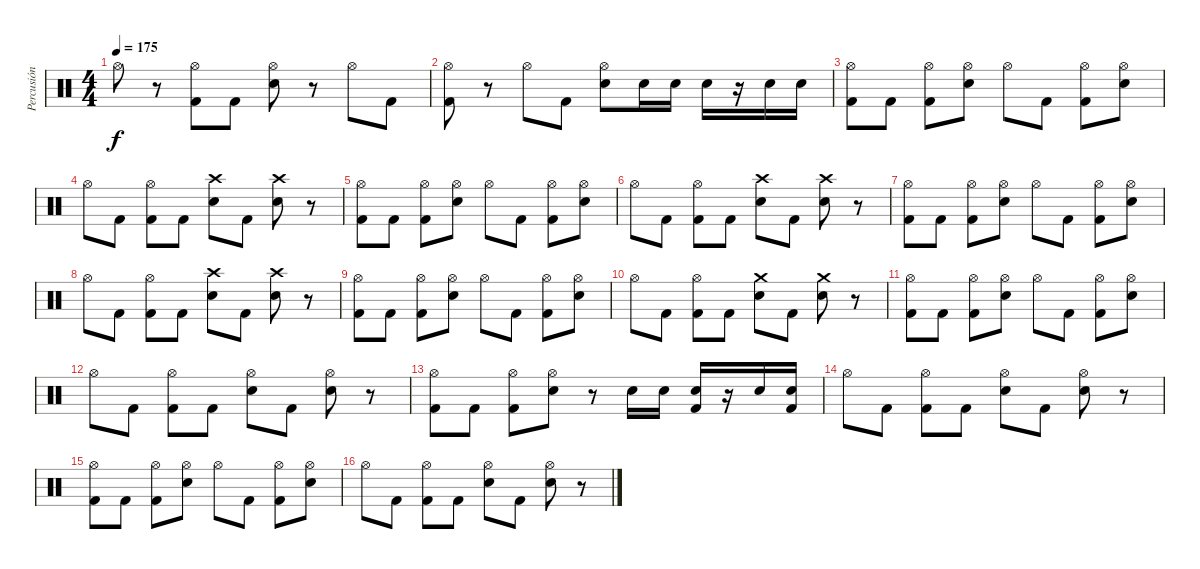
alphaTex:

\track ("Percusión" "Percusión") {instrument percussion}
\staff {score}
\articulation defaults
\ts (4 4)
\tempo 175
\clef neutral
\ks c "Hi-Hat (open)".8{dy f}
r.8 ("Hi-Hat (open)" "Kick (hit) 2").8 "Kick (hit) 2".8 ("Hi-Hat (open)" "Electric Snare (hit)").8 r.8 "Hi-Hat (open)".8 "Kick (hit) 2".8 |
("Hi-Hat (open)" "Kick (hit) 2").8 r.8 "Hi-Hat (open)".8 "Kick (hit) 2".8 ("Hi-Hat (open)" "Electric Snare (hit)").8 "Electric Snare (hit)".16 "Electric Snare (hit)".16 "Electric Snare (hit)".16 r.16 "Electric Snare (hit)".16 "Electric Snare (hit)".16 |
("Hi-Hat (open)" "Kick (hit) 2").8 "Kick (hit) 2".8 ("Hi-Hat (open)" "Kick (hit) 2").8 ("Hi-Hat (open)" "Electric Snare (hit)").8 "Hi-Hat (open)".8 "Kick (hit) 2".8 ("Hi-Hat (open)" "Kick (hit) 2").8 ("Hi-Hat (open)" "Electric Snare (hit)").8 |
"Hi-Hat (open)".8 "Kick (hit) 2".8 ("Hi-Hat (open)" "Kick (hit) 2").8 "Kick (hit) 2".8 ("Crash high (hit)" "Electric Snare (hit)").8 "Kick (hit) 2".8 ("Crash high (hit)" "Electric Snare (hit)").8 r.8 |
("Hi-Hat (open)" "Kick (hit) 2").8 "Kick (hit) 2".8 ("Hi-Hat (open)" "Kick (hit) 2").8 ("Hi-Hat (open)" "Electric Snare (hit)").8 "Hi-Hat (open)".8 "Kick (hit) 2".8 ("Hi-Hat (open)" "Kick (hit) 2").8 ("Hi-Hat (open)" "Electric Snare (hit)").8 |
"Hi-Hat (open)".8 "Kick (hit) 2".8 ("Hi-Hat (open)" "Kick (hit) 2").8 "Kick (hit) 2".8 ("Crash high (hit)" "Electric Snare (hit)").8 "Kick (hit) 2".8 ("Crash high (hit)" "Electric Snare (hit)").8 r.8 |
("Hi-Hat (open)" "Kick (hit) 2").8 "Kick (hit) 2".8 ("Hi-Hat (open)" "Kick (hit) 2").8 ("Hi-Hat (open)" "Electric Snare (hit)").8 "Hi-Hat (open)".8 "Kick (hit) 2".8 ("Hi-Hat (open)" "Kick (hit) 2").8 ("Hi-Hat (open)" "Electric Snare (hit)").8 |
"Hi-Hat (open)".8 "Kick (hit) 2".8 ("Hi-Hat (open)" "Kick (hit) 2").8 "Kick (hit) 2".8 ("Crash high (hit)" "Electric Snare (hit)").8 "Kick (hit) 2".8 ("Crash high (hit)" "Electric Snare (hit)").8 r.8 |
("Hi-Hat (open)" "Kick (hit) 2").8 "Kick (hit) 2".8 ("Hi-Hat (open)" "Kick (hit) 2").8 ("Hi-Hat (open)" "Electric Snare (hit)").8 "Hi-Hat (open)".8 "Kick (hit) 2".8 ("Hi-Hat (open)" "Kick (hit) 2").8 ("Hi-Hat (open)" "Electric Snare (hit)").8 |
"Hi-Hat (open)".8 "Kick (hit) 2".8 ("Hi-Hat (open)" "Kick (hit) 2").8 "Kick (hit) 2".8 ("Crash medium (hit)" "Electric Snare (hit)").8 "Kick (hit) 2".8 ("Crash medium (hit)" "Electric Snare (hit)").8 r.8 |
("Hi-Hat (open)" "Kick (hit) 2").8 "Kick (hit) 2".8 ("Hi-Hat (open)" "Kick (hit) 2").8 ("Hi-Hat (open)" "Electric Snare (hit)").8 "Hi-Hat (open)".8 "Kick (hit) 2".8 ("Hi-Hat (open)" "Kick (hit) 2").8 ("Hi-Hat (open)" "Electric Snare (hit)").8 |
"Hi-Hat (open)".8 "Kick (hit) 2".8 ("Hi-Hat (open)" "Kick (hit) 2").8 "Kick (hit) 2".8 ("Hi-Hat (open)" "Electric Snare (hit)").8 "Kick (hit) 2".8 ("Hi-Hat (open)" "Electric Snare (hit)").8 r.8 |
("Hi-Hat (open)" "Kick (hit) 2").8 "Kick (hit) 2".8 ("Hi-Hat (open)" "Kick (hit) 2").8 ("Hi-Hat (open)" "Electric Snare (hit)").8 r.8 "Electric Snare (hit)".16 "Electric Snare (hit)".16 ("Electric Snare (hit)" "Kick (hit) 2").16 r.16 "Electric Snare (hit)".16 ("Electric Snare (hit)" "Kick (hit) 2").16 |
"Hi-Hat (open)".8 "Kick (hit) 2".8 ("Hi-Hat (open)" "Kick (hit) 2").8 "Kick (hit) 2".8 ("Hi-Hat (open)" "Electric Snare (hit)").8 "Kick (hit) 2".8 ("Hi-Hat (open)" "Electric Snare (hit)").8 r.8 |
("Hi-Hat (open)" "Kick (hit) 2").8 "Kick (hit) 2".8 ("Hi-Hat (open)" "Kick (hit) 2").8 ("Hi-Hat (open)" "Electric Snare (hit)").8 "Hi-Hat (open)".8 "Kick (hit) 2".8 ("Hi-Hat (open)" "Kick (hit) 2").8 ("Hi-Hat (open)" "Electric Snare (hit)").8 |
"Hi-Hat (open)".8 "Kick (hit) 2".8 ("Hi-Hat (open)" "Kick (hit) 2").8 "Kick (hit) 2".8 ("Hi-Hat (open)" "Electric Snare (hit)").8 "Kick (hit) 2".8 ("Hi-Hat (open)" "Electric Snare (hit)").8 r.8
